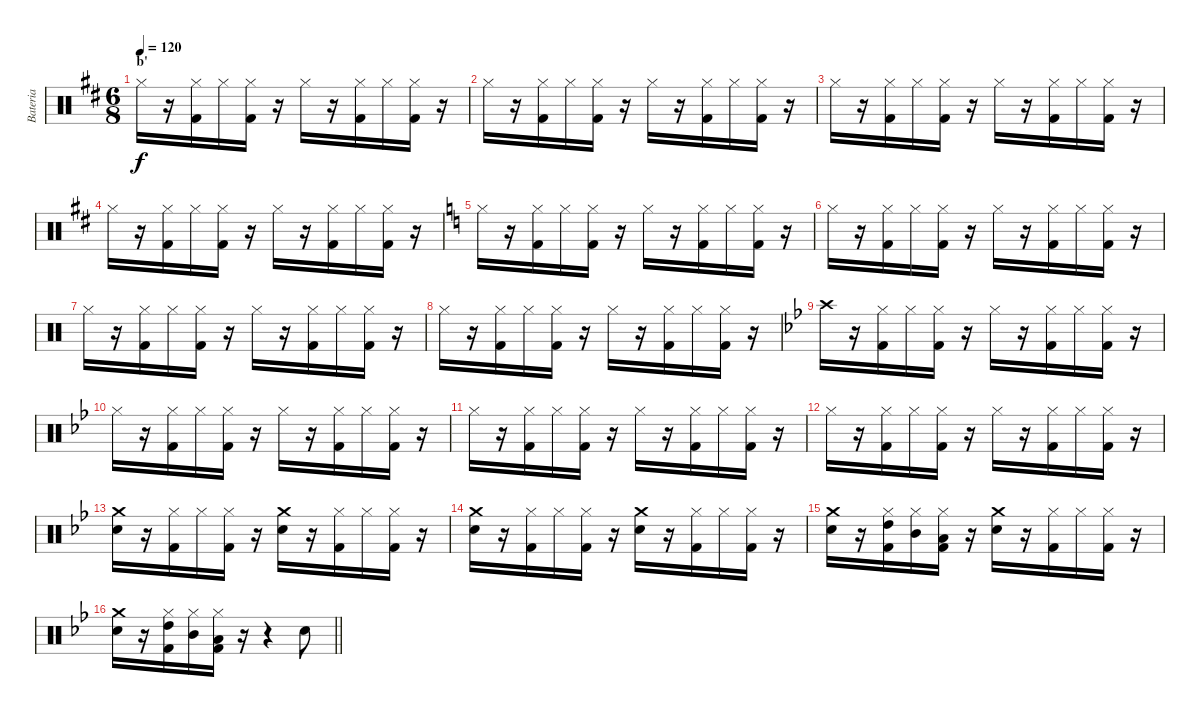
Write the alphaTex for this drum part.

\track ("Bateria" "Bateria") {instrument percussion}
\staff {score}
\articulation defaults
\ts (6 8)
\section ("" "b'")
\tempo 120
\clef neutral
\ks d "Hi-Hat (closed)".16{dy f}
r.16 ("Hi-Hat (closed)" "Kick (hit) 2").16 "Hi-Hat (closed)".16 ("Hi-Hat (closed)" "Kick (hit) 2").16 r.16 "Hi-Hat (closed)".16 r.16 ("Hi-Hat (closed)" "Kick (hit) 2").16 "Hi-Hat (closed)".16 ("Hi-Hat (closed)" "Kick (hit) 2").16 r.16 |
"Hi-Hat (closed)".16 r.16 ("Hi-Hat (closed)" "Kick (hit) 2").16 "Hi-Hat (closed)".16 ("Hi-Hat (closed)" "Kick (hit) 2").16 r.16 "Hi-Hat (closed)".16 r.16 ("Hi-Hat (closed)" "Kick (hit) 2").16 "Hi-Hat (closed)".16 ("Hi-Hat (closed)" "Kick (hit) 2").16 r.16 |
"Hi-Hat (closed)".16 r.16 ("Hi-Hat (closed)" "Kick (hit) 2").16 "Hi-Hat (closed)".16 ("Hi-Hat (closed)" "Kick (hit) 2").16 r.16 "Hi-Hat (closed)".16 r.16 ("Hi-Hat (closed)" "Kick (hit) 2").16 "Hi-Hat (closed)".16 ("Hi-Hat (closed)" "Kick (hit) 2").16 r.16 |
"Hi-Hat (closed)".16 r.16 ("Hi-Hat (closed)" "Kick (hit) 2").16 "Hi-Hat (closed)".16 ("Hi-Hat (closed)" "Kick (hit) 2").16 r.16 "Hi-Hat (closed)".16 r.16 ("Hi-Hat (closed)" "Kick (hit) 2").16 "Hi-Hat (closed)".16 ("Hi-Hat (closed)" "Kick (hit) 2").16 r.16 |
\ks c "Hi-Hat (closed)".16
r.16 ("Hi-Hat (closed)" "Kick (hit) 2").16 "Hi-Hat (closed)".16 ("Hi-Hat (closed)" "Kick (hit) 2").16 r.16 "Hi-Hat (closed)".16 r.16 ("Hi-Hat (closed)" "Kick (hit) 2").16 "Hi-Hat (closed)".16 ("Hi-Hat (closed)" "Kick (hit) 2").16 r.16 |
"Hi-Hat (closed)".16 r.16 ("Hi-Hat (closed)" "Kick (hit) 2").16 "Hi-Hat (closed)".16 ("Hi-Hat (closed)" "Kick (hit) 2").16 r.16 "Hi-Hat (closed)".16 r.16 ("Hi-Hat (closed)" "Kick (hit) 2").16 "Hi-Hat (closed)".16 ("Hi-Hat (closed)" "Kick (hit) 2").16 r.16 |
"Hi-Hat (closed)".16 r.16 ("Hi-Hat (closed)" "Kick (hit) 2").16 "Hi-Hat (closed)".16 ("Hi-Hat (closed)" "Kick (hit) 2").16 r.16 "Hi-Hat (closed)".16 r.16 ("Hi-Hat (closed)" "Kick (hit) 2").16 "Hi-Hat (closed)".16 ("Hi-Hat (closed)" "Kick (hit) 2").16 r.16 |
"Hi-Hat (closed)".16 r.16 ("Hi-Hat (closed)" "Kick (hit) 2").16 "Hi-Hat (closed)".16 ("Hi-Hat (closed)" "Kick (hit) 2").16 r.16 "Hi-Hat (closed)".16 r.16 ("Hi-Hat (closed)" "Kick (hit) 2").16 "Hi-Hat (closed)".16 ("Hi-Hat (closed)" "Kick (hit) 2").16 r.16 |
\ks bb "Crash high (hit)".16
r.16 ("Hi-Hat (closed)" "Kick (hit) 2").16 "Hi-Hat (closed)".16 ("Hi-Hat (closed)" "Kick (hit) 2").16 r.16 "Hi-Hat (closed)".16 r.16 ("Hi-Hat (closed)" "Kick (hit) 2").16 "Hi-Hat (closed)".16 ("Hi-Hat (closed)" "Kick (hit) 2").16 r.16 |
"Hi-Hat (closed)".16 r.16 ("Hi-Hat (closed)" "Kick (hit) 2").16 "Hi-Hat (closed)".16 ("Hi-Hat (closed)" "Kick (hit) 2").16 r.16 "Hi-Hat (closed)".16 r.16 ("Hi-Hat (closed)" "Kick (hit) 2").16 "Hi-Hat (closed)".16 ("Hi-Hat (closed)" "Kick (hit) 2").16 r.16 |
"Hi-Hat (closed)".16 r.16 ("Hi-Hat (closed)" "Kick (hit) 2").16 "Hi-Hat (closed)".16 ("Hi-Hat (closed)" "Kick (hit) 2").16 r.16 "Hi-Hat (closed)".16 r.16 ("Hi-Hat (closed)" "Kick (hit) 2").16 "Hi-Hat (closed)".16 ("Hi-Hat (closed)" "Kick (hit) 2").16 r.16 |
"Hi-Hat (closed)".16 r.16 ("Hi-Hat (closed)" "Kick (hit) 2").16 "Hi-Hat (closed)".16 ("Hi-Hat (closed)" "Kick (hit) 2").16 r.16 "Hi-Hat (closed)".16 r.16 ("Hi-Hat (closed)" "Kick (hit) 2").16 "Hi-Hat (closed)".16 ("Hi-Hat (closed)" "Kick (hit) 2").16 r.16 |
("Crash medium (hit)" "Snare (hit) 2").16 r.16 ("Hi-Hat (closed)" "Kick (hit) 2").16 "Hi-Hat (closed)".16 ("Hi-Hat (closed)" "Kick (hit) 2").16 r.16 ("Snare (hit) 2" "Crash medium (hit)").16 r.16 ("Hi-Hat (closed)" "Kick (hit) 2").16 "Hi-Hat (closed)".16 ("Hi-Hat (closed)" "Kick (hit) 2").16 r.16 |
("Crash medium (hit)" "Snare (hit) 2").16 r.16 ("Hi-Hat (closed)" "Kick (hit) 2").16 "Hi-Hat (closed)".16 ("Hi-Hat (closed)" "Kick (hit) 2").16 r.16 ("Snare (hit) 2" "Crash medium (hit)").16 r.16 ("Hi-Hat (closed)" "Kick (hit) 2").16 "Hi-Hat (closed)".16 ("Hi-Hat (closed)" "Kick (hit) 2").16 r.16 |
("Crash medium (hit)" "Snare (hit) 2").16 r.16 ("Hi-Hat (closed)" "Kick (hit) 2" "High Tom (hit)").16 ("Hi-Hat (closed)" "Mid Tom (hit)").16 ("Hi-Hat (closed)" "Kick (hit) 2" "Low Tom (hit)").16 r.16 ("Snare (hit) 2" "Crash medium (hit)").16 r.16 ("Hi-Hat (closed)" "Kick (hit) 2").16 "Hi-Hat (closed)".16 ("Hi-Hat (closed)" "Kick (hit) 2").16 r.16 |
\barLineRight lightlight
("Crash medium (hit)" "Snare (hit) 2").16 r.16 ("Hi-Hat (closed)" "Kick (hit) 2" "High Tom (hit)").16 ("Hi-Hat (closed)" "Mid Tom (hit)").16 ("Hi-Hat (closed)" "Kick (hit) 2" "Low Tom (hit)").16 r.16 r.4 "Electric Snare (hit)".8
